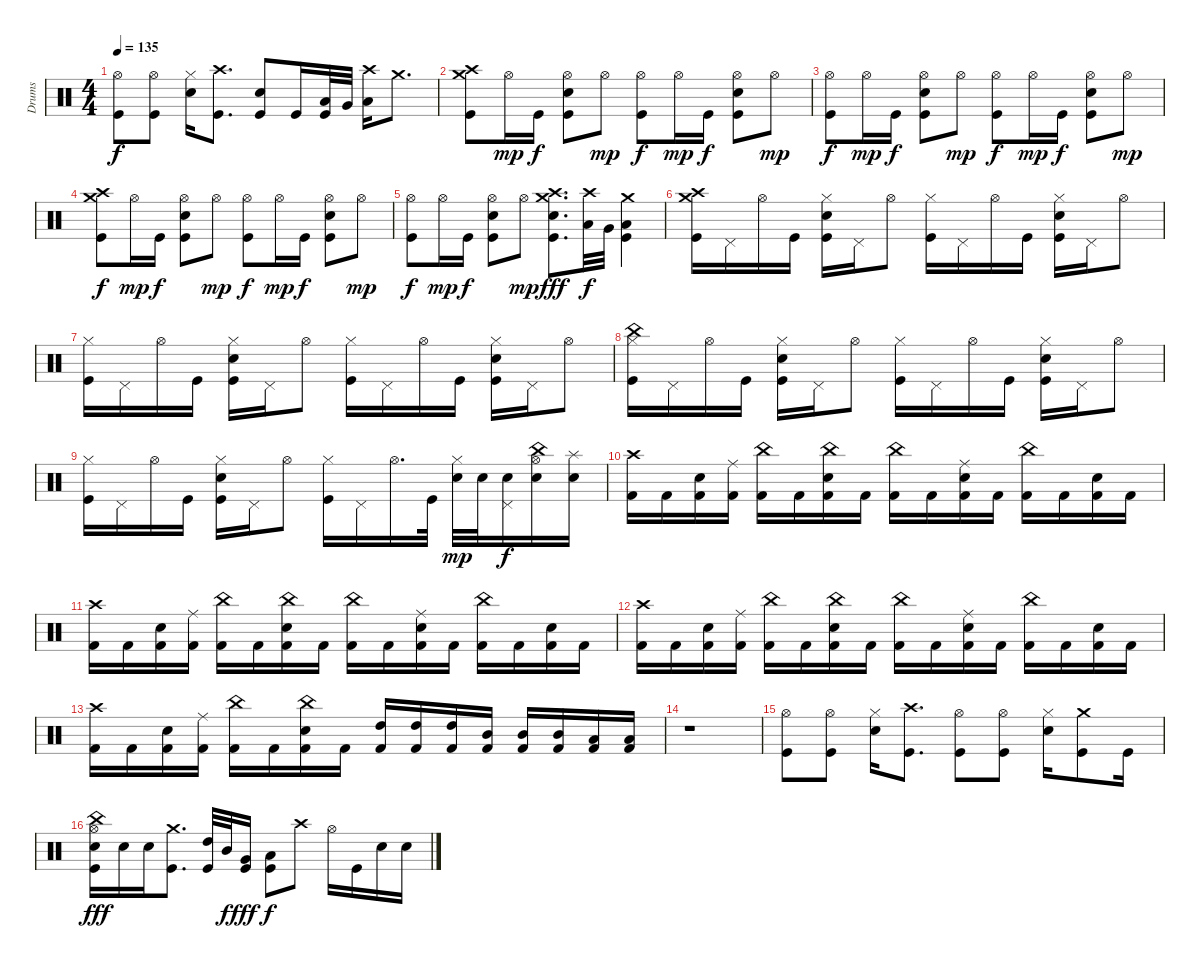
\track ("Drums" "Drums") {instrument percussion}
\staff {score}
\articulation defaults
\ts (4 4)
\tempo 135
\clef neutral
\ks c
("Hi-Hat (open)" "Kick (hit)").8{dy f} ("Hi-Hat (open)" "Kick (hit)").8 ("Hi-Hat (closed)" "Snare (hit) 2").16 ("Crash high (hit)" "Kick (hit)").8{d} ("Snare (hit) 2" "Kick (hit)").8 "Kick (hit)".16 ("Low Tom (hit)" "Kick (hit)").32 "Very Low Tom (hit)".32 ("Low Floor Tom (hit)" "Crash high (hit)").16 "Crash medium (hit)".8{d} |
("Kick (hit)" "Crash medium (hit)" "Crash high (hit)").8 "Hi-Hat (open)".16{dy mp} "Kick (hit)".16{dy f} ("Snare (hit) 2" "Kick (hit)" "Hi-Hat (open)").8 "Hi-Hat (open)".8{dy mp} ("Kick (hit)" "Hi-Hat (open)").8{dy f} "Hi-Hat (open)".16{dy mp} "Kick (hit)".16{dy f} ("Snare (hit) 2" "Kick (hit)" "Hi-Hat (open)").8 "Hi-Hat (open)".8{dy mp} |
("Hi-Hat (open)" "Kick (hit)").8{dy f} "Hi-Hat (open)".16{dy mp} "Kick (hit)".16{dy f} ("Hi-Hat (open)" "Snare (hit) 2" "Kick (hit)").8 "Hi-Hat (open)".8{dy mp} ("Hi-Hat (open)" "Kick (hit)").8{dy f} "Hi-Hat (open)".16{dy mp} "Kick (hit)".16{dy f} ("Hi-Hat (open)" "Snare (hit) 2" "Kick (hit)").8 "Hi-Hat (open)".8{dy mp} |
("Kick (hit)" "Crash medium (hit)" "Crash high (hit)").8{dy f} "Hi-Hat (open)".16{dy mp} "Kick (hit)".16{dy f} ("Snare (hit) 2" "Kick (hit)" "Hi-Hat (open)").8 "Hi-Hat (open)".8{dy mp} ("Kick (hit)" "Hi-Hat (open)").8{dy f} "Hi-Hat (open)".16{dy mp} "Kick (hit)".16{dy f} ("Snare (hit) 2" "Kick (hit)" "Hi-Hat (open)").8 "Hi-Hat (open)".8{dy mp} |
("Kick (hit)" "Hi-Hat (open)").8{dy f} "Hi-Hat (open)".16{dy mp} "Kick (hit)".16{dy f} ("Snare (hit) 2" "Kick (hit)" "Hi-Hat (open)").8 "Hi-Hat (open)".8{dy mp} ("Crash medium (hit)" "Crash high (hit)" "Snare (hit) 2" "Kick (hit)").8{d dy fff} ("Crash high (hit)" "Low Tom (hit)").32{dy f} "Very Low Tom (hit)".32 ("Crash medium (hit)" "Kick (hit)" "Low Floor Tom (hit)").4 |
("Crash medium (hit)" "Crash high (hit)" "Kick (hit)").16 "Pedal Hi-Hat (hit)".16 "Hi-Hat (open)".16 "Kick (hit)".16 ("Hi-Hat (closed)" "Snare (hit) 2" "Kick (hit)").16 "Pedal Hi-Hat (hit)".16 "Hi-Hat (open)".8 ("Hi-Hat (closed)" "Kick (hit)").16 "Pedal Hi-Hat (hit)".16 "Hi-Hat (open)".16 "Kick (hit)".16 ("Hi-Hat (closed)" "Snare (hit) 2" "Kick (hit)").16 "Pedal Hi-Hat (hit)".16 "Hi-Hat (open)".8 |
("Hi-Hat (closed)" "Kick (hit)").16 "Pedal Hi-Hat (hit)".16 "Hi-Hat (open)".16 "Kick (hit)".16 ("Hi-Hat (closed)" "Snare (hit) 2" "Kick (hit)").16 "Pedal Hi-Hat (hit)".16 "Hi-Hat (open)".8 ("Hi-Hat (closed)" "Kick (hit)").16 "Pedal Hi-Hat (hit)".16 "Hi-Hat (open)".16 "Kick (hit)".16 ("Hi-Hat (closed)" "Snare (hit) 2" "Kick (hit)").16 "Pedal Hi-Hat (hit)".16 "Hi-Hat (open)".8 |
("China (hit)" "Hi-Hat (closed)" "Kick (hit)").16 "Pedal Hi-Hat (hit)".16 "Hi-Hat (open)".16 "Kick (hit)".16 ("Hi-Hat (closed)" "Snare (hit) 2" "Kick (hit)").16 "Pedal Hi-Hat (hit)".16 "Hi-Hat (open)".8 ("Hi-Hat (closed)" "Kick (hit)").16 "Pedal Hi-Hat (hit)".16 "Hi-Hat (open)".16 "Kick (hit)".16 ("Hi-Hat (closed)" "Snare (hit) 2" "Kick (hit)").16 "Pedal Hi-Hat (hit)".16 "Hi-Hat (open)".8 |
("Hi-Hat (closed)" "Kick (hit)").16 "Pedal Hi-Hat (hit)".16 "Hi-Hat (open)".16 "Kick (hit)".16 ("Hi-Hat (closed)" "Snare (hit) 2" "Kick (hit)").16 "Pedal Hi-Hat (hit)".16 "Hi-Hat (open)".8 ("Hi-Hat (closed)" "Kick (hit)").16 "Pedal Hi-Hat (hit)".16 "Hi-Hat (open)".16{d} "Kick (hit)".32 ("Hi-Hat (closed)" "Snare (hit) 2").32{dy mp} "Snare (hit) 2".32 ("Pedal Hi-Hat (hit)" "Snare (hit) 2").16{dy f} ("Hi-Hat (open)" "China (hit)" "Snare (hit) 2").16 ("Splash (hit)" "Snare (hit) 2").16 |
("Crash high (hit)" "Kick (hit) 2").16 "Kick (hit) 2".16 ("Snare (hit) 2" "Kick (hit) 2").16 ("Ride (middle)" "Kick (hit) 2").16 ("China (hit)" "Kick (hit) 2").16 "Kick (hit) 2".16 ("China (hit)" "Snare (hit) 2" "Kick (hit) 2").16 "Kick (hit) 2".16 ("China (hit)" "Kick (hit) 2").16 "Kick (hit) 2".16 ("Ride (middle)" "Snare (hit) 2" "Kick (hit) 2").16 "Kick (hit) 2".16 ("China (hit)" "Kick (hit) 2").16 "Kick (hit) 2".16 ("Snare (hit) 2" "Kick (hit) 2").16 "Kick (hit) 2".16 |
("Crash high (hit)" "Kick (hit) 2").16 "Kick (hit) 2".16 ("Snare (hit) 2" "Kick (hit) 2").16 ("Ride (middle)" "Kick (hit) 2").16 ("China (hit)" "Kick (hit) 2").16 "Kick (hit) 2".16 ("China (hit)" "Snare (hit) 2" "Kick (hit) 2").16 "Kick (hit) 2".16 ("China (hit)" "Kick (hit) 2").16 "Kick (hit) 2".16 ("Ride (middle)" "Snare (hit) 2" "Kick (hit) 2").16 "Kick (hit) 2".16 ("China (hit)" "Kick (hit) 2").16 "Kick (hit) 2".16 ("Snare (hit) 2" "Kick (hit) 2").16 "Kick (hit) 2".16 |
("Crash high (hit)" "Kick (hit) 2").16 "Kick (hit) 2".16 ("Snare (hit) 2" "Kick (hit) 2").16 ("Ride (middle)" "Kick (hit) 2").16 ("China (hit)" "Kick (hit) 2").16 "Kick (hit) 2".16 ("China (hit)" "Snare (hit) 2" "Kick (hit) 2").16 "Kick (hit) 2".16 ("China (hit)" "Kick (hit) 2").16 "Kick (hit) 2".16 ("Ride (middle)" "Snare (hit) 2" "Kick (hit) 2").16 "Kick (hit) 2".16 ("China (hit)" "Kick (hit) 2").16 "Kick (hit) 2".16 ("Snare (hit) 2" "Kick (hit) 2").16 "Kick (hit) 2".16 |
("Crash high (hit)" "Kick (hit) 2").16 "Kick (hit) 2".16 ("Snare (hit) 2" "Kick (hit) 2").16 ("Ride (middle)" "Kick (hit) 2").16 ("China (hit)" "Kick (hit) 2").16 "Kick (hit) 2".16 ("China (hit)" "Snare (hit) 2" "Kick (hit) 2").16 "Kick (hit) 2".16 ("High Tom (hit)" "Kick (hit) 2").16 ("High Tom (hit)" "Kick (hit) 2").16 ("High Tom (hit)" "Kick (hit) 2").16 ("Mid Tom (hit)" "Kick (hit) 2").16 ("Mid Tom (hit)" "Kick (hit) 2").16 ("Mid Tom (hit)" "Kick (hit) 2").16 ("Low Tom (hit)" "Kick (hit) 2").16 ("Low Tom (hit)" "Kick (hit) 2").16 |
r.1 |
("Hi-Hat (open)" "Kick (hit)").8 ("Kick (hit)" "Hi-Hat (open)").8 ("Hi-Hat (closed)" "Snare (hit) 2").16 ("Crash high (hit)" "Kick (hit)").8{d} ("Hi-Hat (open)" "Kick (hit)").8 ("Hi-Hat (open)" "Kick (hit)").8 ("Hi-Hat (closed)" "Snare (hit) 2").16 ("Crash medium (hit)" "Kick (hit)").8 "Kick (hit)".16 |
("Hi-Hat (open)" "China (hit)" "Kick (hit)" "Snare (hit) 2").16{dy fff} "Snare (hit) 2".16 "Snare (hit) 2".16 ("Kick (hit)" "Crash medium (hit)").8{d} ("Kick (hit)" "High Tom (hit)").32 "Mid Tom (hit)".32{dy f} ("Kick (hit)" "Very Low Tom (hit)").16{dy fff} ("Low Floor Tom (hit)" "Kick (hit)").8{dy f} "Crash high (hit)".8 "Hi-Hat (open)".16 "Kick (hit)".16 "Snare (hit) 2".16 "Snare (hit) 2".16
